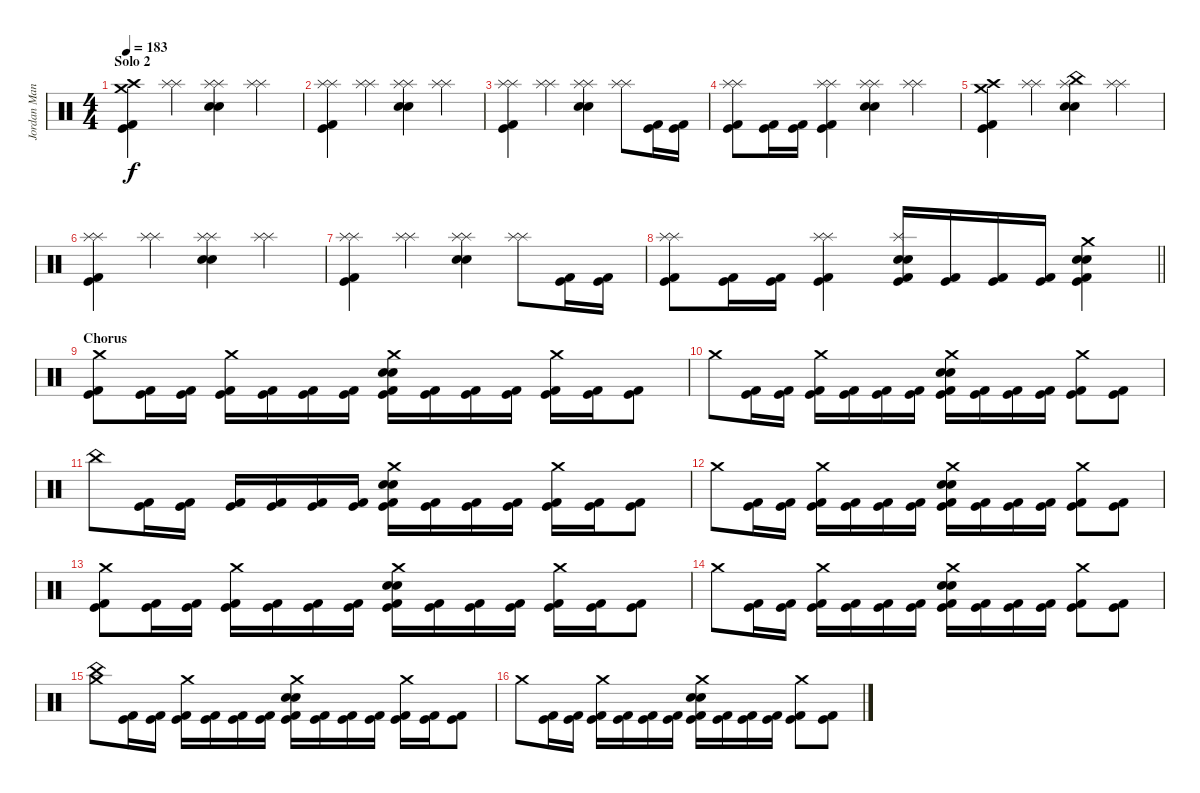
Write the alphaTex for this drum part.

\track ("Jordan Mancino" "Jordan Man") {instrument percussion}
\staff {score}
\articulation defaults
\ts (4 4)
\section ("" "Solo 2")
\tempo 183
\clef neutral
\ks c
("Crash medium (hit)" "Crash high (hit)" "Kick (hit)" "Kick (hit) 2").4{dy f} ("Splash (hit)" "Splash (hit)").4 ("Splash (hit)" "Splash (hit)" "Electric Snare (hit)" "Snare (hit) 2").4 ("Splash (hit)" "Splash (hit)").4 |
("Splash (hit)" "Splash (hit)" "Kick (hit)" "Kick (hit) 2").4 ("Splash (hit)" "Splash (hit)").4 ("Splash (hit)" "Splash (hit)" "Electric Snare (hit)" "Snare (hit) 2").4 ("Splash (hit)" "Splash (hit)").4 |
("Splash (hit)" "Splash (hit)" "Kick (hit)" "Kick (hit) 2").4 ("Splash (hit)" "Splash (hit)").4 ("Splash (hit)" "Splash (hit)" "Electric Snare (hit)" "Snare (hit) 2").4 ("Splash (hit)" "Splash (hit)").8 ("Kick (hit)" "Kick (hit) 2").16 ("Kick (hit)" "Kick (hit) 2").16 |
("Splash (hit)" "Splash (hit)" "Kick (hit)" "Kick (hit) 2").8 ("Kick (hit)" "Kick (hit) 2").16 ("Kick (hit)" "Kick (hit) 2").16 ("Splash (hit)" "Splash (hit)" "Kick (hit)" "Kick (hit) 2").4 ("Splash (hit)" "Splash (hit)" "Electric Snare (hit)" "Snare (hit) 2").4 ("Splash (hit)" "Splash (hit)").4 |
("Crash medium (hit)" "Crash high (hit)" "Kick (hit)" "Kick (hit) 2").4 ("Splash (hit)" "Splash (hit)").4 ("China (hit)" "Splash (hit)" "Electric Snare (hit)" "Snare (hit) 2").4 ("Splash (hit)" "Splash (hit)").4 |
("Splash (hit)" "Splash (hit)" "Kick (hit)" "Kick (hit) 2").4 ("Splash (hit)" "Splash (hit)").4 ("Splash (hit)" "Splash (hit)" "Electric Snare (hit)" "Snare (hit) 2").4 ("Splash (hit)" "Splash (hit)").4 |
("Splash (hit)" "Splash (hit)" "Kick (hit)" "Kick (hit) 2").4 ("Splash (hit)" "Splash (hit)").4 ("Splash (hit)" "Splash (hit)" "Electric Snare (hit)" "Snare (hit) 2").4 ("Splash (hit)" "Splash (hit)").8 ("Kick (hit)" "Kick (hit) 2").16 ("Kick (hit)" "Kick (hit) 2").16 |
\barLineRight lightlight
("Splash (hit)" "Splash (hit)" "Kick (hit)" "Kick (hit) 2").8 ("Kick (hit)" "Kick (hit) 2").16 ("Kick (hit)" "Kick (hit) 2").16 ("Splash (hit)" "Splash (hit)" "Kick (hit)" "Kick (hit) 2").4 ("Splash (hit)" "Electric Snare (hit)" "Snare (hit) 2" "Kick (hit)" "Kick (hit) 2").16 ("Kick (hit)" "Kick (hit) 2").16 ("Kick (hit)" "Kick (hit) 2").16 ("Kick (hit)" "Kick (hit) 2").16 ("Crash medium (hit)" "Electric Snare (hit)" "Snare (hit) 2" "Kick (hit)" "Kick (hit) 2").4 |
\section ("" "Chorus")
("Crash medium (hit)" "Kick (hit)" "Kick (hit) 2").8 ("Kick (hit)" "Kick (hit) 2").16 ("Kick (hit)" "Kick (hit) 2").16 ("Crash medium (hit)" "Kick (hit)" "Kick (hit) 2").16 ("Kick (hit)" "Kick (hit) 2").16 ("Kick (hit)" "Kick (hit) 2").16 ("Kick (hit)" "Kick (hit) 2").16 ("Crash medium (hit)" "Electric Snare (hit)" "Snare (hit) 2" "Kick (hit)" "Kick (hit) 2").16 ("Kick (hit)" "Kick (hit) 2").16 ("Kick (hit)" "Kick (hit) 2").16 ("Kick (hit)" "Kick (hit) 2").16 ("Crash medium (hit)" "Kick (hit)" "Kick (hit) 2").16 ("Kick (hit)" "Kick (hit) 2").16 ("Kick (hit)" "Kick (hit) 2").8 |
"Crash medium (hit)".8 ("Kick (hit)" "Kick (hit) 2").16 ("Kick (hit)" "Kick (hit) 2").16 ("Crash medium (hit)" "Kick (hit)" "Kick (hit) 2").16 ("Kick (hit)" "Kick (hit) 2").16 ("Kick (hit)" "Kick (hit) 2").16 ("Kick (hit)" "Kick (hit) 2").16 ("Crash medium (hit)" "Electric Snare (hit)" "Snare (hit) 2" "Kick (hit)" "Kick (hit) 2").16 ("Kick (hit)" "Kick (hit) 2").16 ("Kick (hit)" "Kick (hit) 2").16 ("Kick (hit)" "Kick (hit) 2").16 ("Crash medium (hit)" "Kick (hit)" "Kick (hit) 2").8 ("Kick (hit)" "Kick (hit) 2").8 |
"China (hit)".8 ("Kick (hit)" "Kick (hit) 2").16 ("Kick (hit)" "Kick (hit) 2").16 ("Kick (hit)" "Kick (hit) 2").16 ("Kick (hit)" "Kick (hit) 2").16 ("Kick (hit)" "Kick (hit) 2").16 ("Kick (hit)" "Kick (hit) 2").16 ("Crash medium (hit)" "Electric Snare (hit)" "Snare (hit) 2" "Kick (hit)" "Kick (hit) 2").16 ("Kick (hit)" "Kick (hit) 2").16 ("Kick (hit)" "Kick (hit) 2").16 ("Kick (hit)" "Kick (hit) 2").16 ("Crash medium (hit)" "Kick (hit)" "Kick (hit) 2").16 ("Kick (hit)" "Kick (hit) 2").16 ("Kick (hit)" "Kick (hit) 2").8 |
"Crash medium (hit)".8 ("Kick (hit)" "Kick (hit) 2").16 ("Kick (hit)" "Kick (hit) 2").16 ("Crash medium (hit)" "Kick (hit)" "Kick (hit) 2").16 ("Kick (hit)" "Kick (hit) 2").16 ("Kick (hit)" "Kick (hit) 2").16 ("Kick (hit)" "Kick (hit) 2").16 ("Crash medium (hit)" "Electric Snare (hit)" "Snare (hit) 2" "Kick (hit)" "Kick (hit) 2").16 ("Kick (hit)" "Kick (hit) 2").16 ("Kick (hit)" "Kick (hit) 2").16 ("Kick (hit)" "Kick (hit) 2").16 ("Crash medium (hit)" "Kick (hit)" "Kick (hit) 2").8 ("Kick (hit)" "Kick (hit) 2").8 |
("Crash medium (hit)" "Kick (hit)" "Kick (hit) 2").8 ("Kick (hit)" "Kick (hit) 2").16 ("Kick (hit)" "Kick (hit) 2").16 ("Crash medium (hit)" "Kick (hit)" "Kick (hit) 2").16 ("Kick (hit)" "Kick (hit) 2").16 ("Kick (hit)" "Kick (hit) 2").16 ("Kick (hit)" "Kick (hit) 2").16 ("Crash medium (hit)" "Electric Snare (hit)" "Snare (hit) 2" "Kick (hit)" "Kick (hit) 2").16 ("Kick (hit)" "Kick (hit) 2").16 ("Kick (hit)" "Kick (hit) 2").16 ("Kick (hit)" "Kick (hit) 2").16 ("Crash medium (hit)" "Kick (hit)" "Kick (hit) 2").16 ("Kick (hit)" "Kick (hit) 2").16 ("Kick (hit)" "Kick (hit) 2").8 |
"Crash medium (hit)".8 ("Kick (hit)" "Kick (hit) 2").16 ("Kick (hit)" "Kick (hit) 2").16 ("Crash medium (hit)" "Kick (hit)" "Kick (hit) 2").16 ("Kick (hit)" "Kick (hit) 2").16 ("Kick (hit)" "Kick (hit) 2").16 ("Kick (hit)" "Kick (hit) 2").16 ("Crash medium (hit)" "Electric Snare (hit)" "Snare (hit) 2" "Kick (hit)" "Kick (hit) 2").16 ("Kick (hit)" "Kick (hit) 2").16 ("Kick (hit)" "Kick (hit) 2").16 ("Kick (hit)" "Kick (hit) 2").16 ("Crash medium (hit)" "Kick (hit)" "Kick (hit) 2").8 ("Kick (hit)" "Kick (hit) 2").8 |
("China (hit)" "Crash medium (hit)").8 ("Kick (hit)" "Kick (hit) 2").16 ("Kick (hit)" "Kick (hit) 2").16 ("Crash medium (hit)" "Kick (hit)" "Kick (hit) 2").16 ("Kick (hit)" "Kick (hit) 2").16 ("Kick (hit)" "Kick (hit) 2").16 ("Kick (hit)" "Kick (hit) 2").16 ("Crash medium (hit)" "Electric Snare (hit)" "Snare (hit) 2" "Kick (hit)" "Kick (hit) 2").16 ("Kick (hit)" "Kick (hit) 2").16 ("Kick (hit)" "Kick (hit) 2").16 ("Kick (hit)" "Kick (hit) 2").16 ("Crash medium (hit)" "Kick (hit)" "Kick (hit) 2").16 ("Kick (hit)" "Kick (hit) 2").16 ("Kick (hit)" "Kick (hit) 2").8 |
"Crash medium (hit)".8 ("Kick (hit)" "Kick (hit) 2").16 ("Kick (hit)" "Kick (hit) 2").16 ("Crash medium (hit)" "Kick (hit)" "Kick (hit) 2").16 ("Kick (hit)" "Kick (hit) 2").16 ("Kick (hit)" "Kick (hit) 2").16 ("Kick (hit)" "Kick (hit) 2").16 ("Crash medium (hit)" "Electric Snare (hit)" "Snare (hit) 2" "Kick (hit)" "Kick (hit) 2").16 ("Kick (hit)" "Kick (hit) 2").16 ("Kick (hit)" "Kick (hit) 2").16 ("Kick (hit)" "Kick (hit) 2").16 ("Crash medium (hit)" "Kick (hit)" "Kick (hit) 2").8 ("Kick (hit)" "Kick (hit) 2").8
